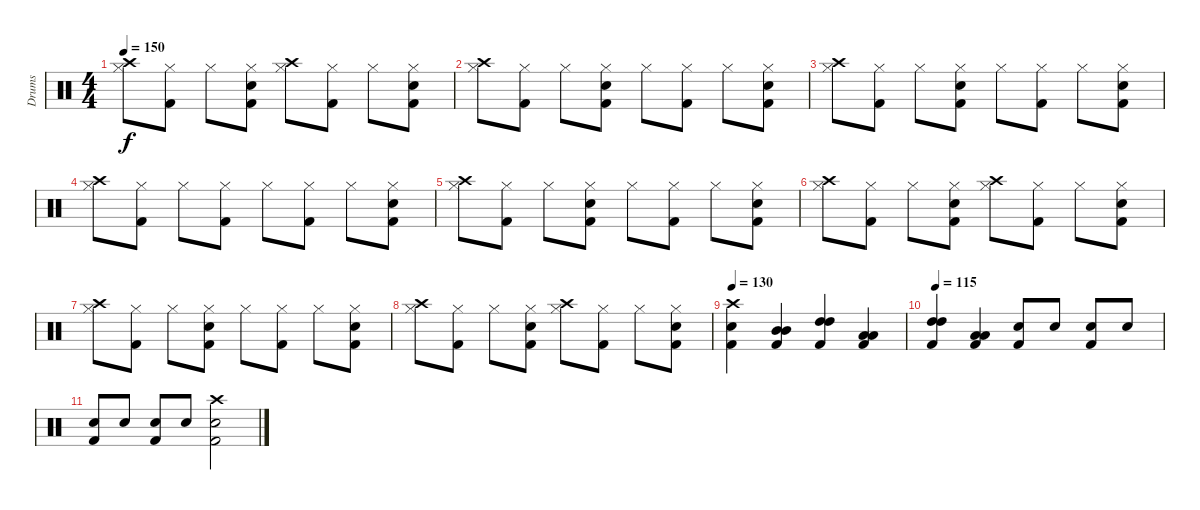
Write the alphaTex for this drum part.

\track ("Drums" "Drums") {instrument percussion}
\staff {score}
\articulation defaults
\ts (4 4)
\tempo 150
\clef neutral
\ks c
("Crash high (hit)" "Hi-Hat (closed)").8{dy f} ("Kick (hit) 2" "Hi-Hat (closed)").8 "Hi-Hat (closed)".8 ("Electric Snare (hit)" "Kick (hit) 2" "Hi-Hat (closed)").8 ("Crash high (hit)" "Hi-Hat (closed)").8 ("Kick (hit) 2" "Hi-Hat (closed)").8 "Hi-Hat (closed)".8 ("Electric Snare (hit)" "Kick (hit) 2" "Hi-Hat (closed)").8 |
("Crash high (hit)" "Hi-Hat (closed)").8 ("Kick (hit) 2" "Hi-Hat (closed)").8 "Hi-Hat (closed)".8 ("Electric Snare (hit)" "Kick (hit) 2" "Hi-Hat (closed)").8 "Hi-Hat (closed)".8 ("Kick (hit) 2" "Hi-Hat (closed)").8 "Hi-Hat (closed)".8 ("Electric Snare (hit)" "Kick (hit) 2" "Hi-Hat (closed)").8 |
("Crash high (hit)" "Hi-Hat (closed)").8 ("Kick (hit) 2" "Hi-Hat (closed)").8 "Hi-Hat (closed)".8 ("Electric Snare (hit)" "Kick (hit) 2" "Hi-Hat (closed)").8 "Hi-Hat (closed)".8 ("Kick (hit) 2" "Hi-Hat (closed)").8 "Hi-Hat (closed)".8 ("Electric Snare (hit)" "Kick (hit) 2" "Hi-Hat (closed)").8 |
("Crash high (hit)" "Hi-Hat (closed)").8 ("Kick (hit) 2" "Hi-Hat (closed)").8 "Hi-Hat (closed)".8 ("Kick (hit) 2" "Hi-Hat (closed)").8 "Hi-Hat (closed)".8 ("Kick (hit) 2" "Hi-Hat (closed)").8 "Hi-Hat (closed)".8 ("Electric Snare (hit)" "Kick (hit) 2" "Hi-Hat (closed)").8 |
("Crash high (hit)" "Hi-Hat (closed)").8 ("Kick (hit) 2" "Hi-Hat (closed)").8 "Hi-Hat (closed)".8 ("Electric Snare (hit)" "Kick (hit) 2" "Hi-Hat (closed)").8 "Hi-Hat (closed)".8 ("Kick (hit) 2" "Hi-Hat (closed)").8 "Hi-Hat (closed)".8 ("Electric Snare (hit)" "Kick (hit) 2" "Hi-Hat (closed)").8 |
("Crash high (hit)" "Hi-Hat (closed)").8 ("Kick (hit) 2" "Hi-Hat (closed)").8 "Hi-Hat (closed)".8 ("Electric Snare (hit)" "Kick (hit) 2" "Hi-Hat (closed)").8 ("Crash high (hit)" "Hi-Hat (closed)").8 ("Kick (hit) 2" "Hi-Hat (closed)").8 "Hi-Hat (closed)".8 ("Electric Snare (hit)" "Kick (hit) 2" "Hi-Hat (closed)").8 |
("Crash high (hit)" "Hi-Hat (closed)").8 ("Kick (hit) 2" "Hi-Hat (closed)").8 "Hi-Hat (closed)".8 ("Electric Snare (hit)" "Kick (hit) 2" "Hi-Hat (closed)").8 "Hi-Hat (closed)".8 ("Kick (hit) 2" "Hi-Hat (closed)").8 "Hi-Hat (closed)".8 ("Electric Snare (hit)" "Kick (hit) 2" "Hi-Hat (closed)").8 |
("Crash high (hit)" "Hi-Hat (closed)").8 ("Kick (hit) 2" "Hi-Hat (closed)").8 "Hi-Hat (closed)".8 ("Electric Snare (hit)" "Kick (hit) 2" "Hi-Hat (closed)").8 ("Crash high (hit)" "Hi-Hat (closed)").8 ("Kick (hit) 2" "Hi-Hat (closed)").8 "Hi-Hat (closed)".8 ("Electric Snare (hit)" "Kick (hit) 2" "Hi-Hat (closed)").8 |
\tempo 130
("Electric Snare (hit)" "Kick (hit) 2" "Crash high (hit)").4 ("Mid Tom (hit)" "Mid Tom (hit)" "Kick (hit) 2").4 ("High Tom (hit)" "High Tom (hit)" "Kick (hit) 2").4 ("Low Tom (hit)" "Low Tom (hit)" "Kick (hit) 2").4 |
\tempo 115
("High Tom (hit)" "High Tom (hit)" "Kick (hit) 2").4 ("Low Tom (hit)" "Low Tom (hit)" "Kick (hit) 2").4 ("Kick (hit) 2" "Electric Snare (hit)").8 "Electric Snare (hit)".8 ("Kick (hit) 2" "Electric Snare (hit)").8 "Electric Snare (hit)".8 |
("Kick (hit) 2" "Electric Snare (hit)").8 "Electric Snare (hit)".8 ("Kick (hit) 2" "Electric Snare (hit)").8 "Electric Snare (hit)".8 ("Electric Snare (hit)" "Kick (hit) 2" "Crash high (hit)").2
